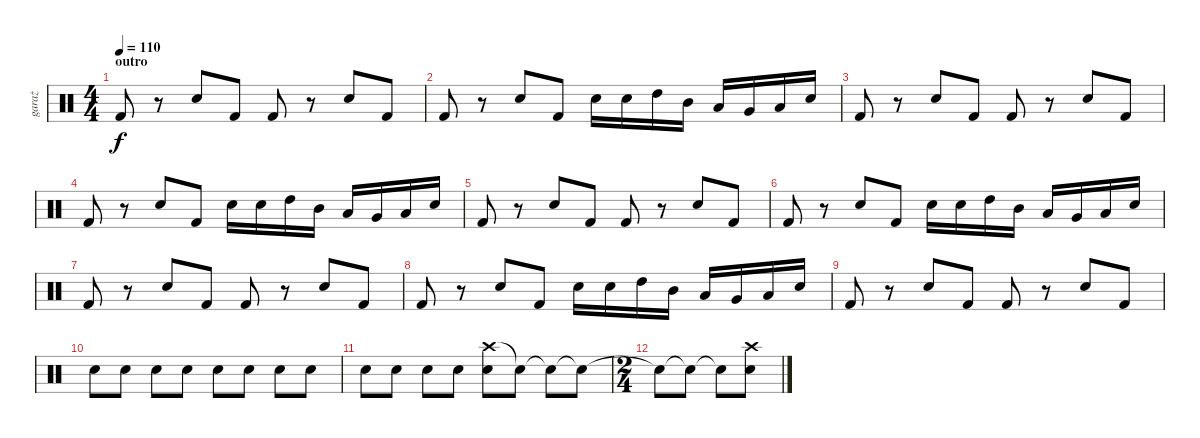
\track ("garaż" "garaż") {instrument percussion}
\staff {score}
\articulation defaults
\ts (4 4)
\section ("" "outro")
\tempo 110
\clef neutral
\ks c "Kick (hit) 2".8{dy f}
r.8 "Snare (hit) 2".8 "Kick (hit) 2".8 "Kick (hit) 2".8 r.8 "Snare (hit) 2".8 "Kick (hit) 2".8 |
"Kick (hit) 2".8 r.8 "Snare (hit) 2".8 "Kick (hit) 2".8 "Snare (hit) 2".16 "Snare (hit) 2".16 "High Tom (hit)".16 "Mid Tom (hit)".16 "Low Tom (hit)".16 "Very Low Tom (hit)".16 "Low Floor Tom (hit)".16 "Snare (hit) 2".16 |
"Kick (hit) 2".8 r.8 "Snare (hit) 2".8 "Kick (hit) 2".8 "Kick (hit) 2".8 r.8 "Snare (hit) 2".8 "Kick (hit) 2".8 |
"Kick (hit) 2".8 r.8 "Snare (hit) 2".8 "Kick (hit) 2".8 "Snare (hit) 2".16 "Snare (hit) 2".16 "High Tom (hit)".16 "Mid Tom (hit)".16 "Low Tom (hit)".16 "Very Low Tom (hit)".16 "Low Floor Tom (hit)".16 "Snare (hit) 2".16 |
"Kick (hit) 2".8 r.8 "Snare (hit) 2".8 "Kick (hit) 2".8 "Kick (hit) 2".8 r.8 "Snare (hit) 2".8 "Kick (hit) 2".8 |
"Kick (hit) 2".8 r.8 "Snare (hit) 2".8 "Kick (hit) 2".8 "Snare (hit) 2".16 "Snare (hit) 2".16 "High Tom (hit)".16 "Mid Tom (hit)".16 "Low Tom (hit)".16 "Very Low Tom (hit)".16 "Low Floor Tom (hit)".16 "Snare (hit) 2".16 |
"Kick (hit) 2".8 r.8 "Snare (hit) 2".8 "Kick (hit) 2".8 "Kick (hit) 2".8 r.8 "Snare (hit) 2".8 "Kick (hit) 2".8 |
"Kick (hit) 2".8 r.8 "Snare (hit) 2".8 "Kick (hit) 2".8 "Snare (hit) 2".16 "Snare (hit) 2".16 "High Tom (hit)".16 "Mid Tom (hit)".16 "Low Tom (hit)".16 "Very Low Tom (hit)".16 "Low Floor Tom (hit)".16 "Snare (hit) 2".16 |
"Kick (hit) 2".8 r.8 "Snare (hit) 2".8 "Kick (hit) 2".8 "Kick (hit) 2".8 r.8 "Snare (hit) 2".8 "Kick (hit) 2".8 |
"Snare (hit) 2".8 "Snare (hit) 2".8 "Snare (hit) 2".8 "Snare (hit) 2".8 "Snare (hit) 2".8 "Snare (hit) 2".8 "Snare (hit) 2".8 "Snare (hit) 2".8 |
"Snare (hit) 2".8 "Snare (hit) 2".8 "Snare (hit) 2".8 "Snare (hit) 2".8 ("Crash high (hit)" "Snare (hit) 2").8 "Snare (hit)"{t}.8 "Snare (hit)"{t}.8 "Snare (hit)"{t}.8 |
\ts (2 4)
"Snare (hit)"{t}.8 "Snare (hit)"{t}.8 "Snare (hit)"{t}.8 ("Snare (hit) 2" "Crash high (hit)").8
